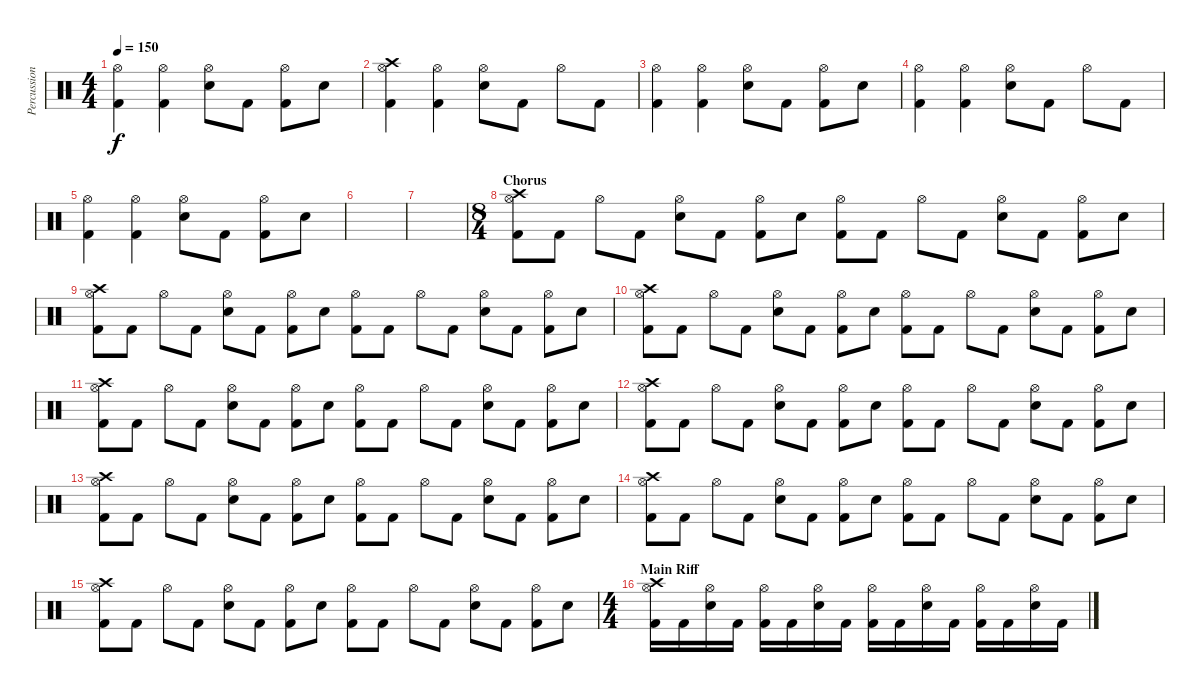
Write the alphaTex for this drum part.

\track ("Percussions" "Percussion") {instrument percussion}
\staff {score}
\articulation defaults
\ts (4 4)
\tempo 150
\clef neutral
\ks c
("Hi-Hat (open)" "Kick (hit) 2").4{dy f} ("Hi-Hat (open)" "Kick (hit) 2").4 ("Hi-Hat (open)" "Electric Snare (hit)").8 "Kick (hit) 2".8 ("Hi-Hat (open)" "Kick (hit) 2").8 "Electric Snare (hit)".8 |
("Crash high (hit)" "Hi-Hat (open)" "Kick (hit) 2").4 ("Hi-Hat (open)" "Kick (hit) 2").4 ("Hi-Hat (open)" "Electric Snare (hit)").8 "Kick (hit) 2".8 "Hi-Hat (open)".8 "Kick (hit) 2".8 |
("Hi-Hat (open)" "Kick (hit) 2").4 ("Hi-Hat (open)" "Kick (hit) 2").4 ("Hi-Hat (open)" "Electric Snare (hit)").8 "Kick (hit) 2".8 ("Hi-Hat (open)" "Kick (hit) 2").8 "Electric Snare (hit)".8 |
("Hi-Hat (open)" "Kick (hit) 2").4 ("Hi-Hat (open)" "Kick (hit) 2").4 ("Hi-Hat (open)" "Electric Snare (hit)").8 "Kick (hit) 2".8 "Hi-Hat (open)".8 "Kick (hit) 2".8 |
("Hi-Hat (open)" "Kick (hit) 2").4 ("Hi-Hat (open)" "Kick (hit) 2").4 ("Hi-Hat (open)" "Electric Snare (hit)").8 "Kick (hit) 2".8 ("Hi-Hat (open)" "Kick (hit) 2").8 "Electric Snare (hit)".8 |
|
|
\ts (8 4)
\section ("" "Chorus")
("Crash high (hit)" "Hi-Hat (open)" "Kick (hit) 2").8 "Kick (hit) 2".8 "Hi-Hat (open)".8 "Kick (hit) 2".8 ("Hi-Hat (open)" "Electric Snare (hit)").8 "Kick (hit) 2".8 ("Hi-Hat (open)" "Kick (hit) 2").8 "Electric Snare (hit)".8 ("Hi-Hat (open)" "Kick (hit) 2").8 "Kick (hit) 2".8 "Hi-Hat (open)".8 "Kick (hit) 2".8 ("Hi-Hat (open)" "Electric Snare (hit)").8 "Kick (hit) 2".8 ("Hi-Hat (open)" "Kick (hit) 2").8 "Electric Snare (hit)".8 |
("Crash high (hit)" "Hi-Hat (open)" "Kick (hit) 2").8 "Kick (hit) 2".8 "Hi-Hat (open)".8 "Kick (hit) 2".8 ("Hi-Hat (open)" "Electric Snare (hit)").8 "Kick (hit) 2".8 ("Hi-Hat (open)" "Kick (hit) 2").8 "Electric Snare (hit)".8 ("Hi-Hat (open)" "Kick (hit) 2").8 "Kick (hit) 2".8 "Hi-Hat (open)".8 "Kick (hit) 2".8 ("Hi-Hat (open)" "Electric Snare (hit)").8 "Kick (hit) 2".8 ("Hi-Hat (open)" "Kick (hit) 2").8 "Electric Snare (hit)".8 |
("Crash high (hit)" "Hi-Hat (open)" "Kick (hit) 2").8 "Kick (hit) 2".8 "Hi-Hat (open)".8 "Kick (hit) 2".8 ("Hi-Hat (open)" "Electric Snare (hit)").8 "Kick (hit) 2".8 ("Hi-Hat (open)" "Kick (hit) 2").8 "Electric Snare (hit)".8 ("Hi-Hat (open)" "Kick (hit) 2").8 "Kick (hit) 2".8 "Hi-Hat (open)".8 "Kick (hit) 2".8 ("Hi-Hat (open)" "Electric Snare (hit)").8 "Kick (hit) 2".8 ("Hi-Hat (open)" "Kick (hit) 2").8 "Electric Snare (hit)".8 |
("Crash high (hit)" "Hi-Hat (open)" "Kick (hit) 2").8 "Kick (hit) 2".8 "Hi-Hat (open)".8 "Kick (hit) 2".8 ("Hi-Hat (open)" "Electric Snare (hit)").8 "Kick (hit) 2".8 ("Hi-Hat (open)" "Kick (hit) 2").8 "Electric Snare (hit)".8 ("Hi-Hat (open)" "Kick (hit) 2").8 "Kick (hit) 2".8 "Hi-Hat (open)".8 "Kick (hit) 2".8 ("Hi-Hat (open)" "Electric Snare (hit)").8 "Kick (hit) 2".8 ("Hi-Hat (open)" "Kick (hit) 2").8 "Electric Snare (hit)".8 |
("Crash high (hit)" "Hi-Hat (open)" "Kick (hit) 2").8 "Kick (hit) 2".8 "Hi-Hat (open)".8 "Kick (hit) 2".8 ("Hi-Hat (open)" "Electric Snare (hit)").8 "Kick (hit) 2".8 ("Hi-Hat (open)" "Kick (hit) 2").8 "Electric Snare (hit)".8 ("Hi-Hat (open)" "Kick (hit) 2").8 "Kick (hit) 2".8 "Hi-Hat (open)".8 "Kick (hit) 2".8 ("Hi-Hat (open)" "Electric Snare (hit)").8 "Kick (hit) 2".8 ("Hi-Hat (open)" "Kick (hit) 2").8 "Electric Snare (hit)".8 |
("Crash high (hit)" "Hi-Hat (open)" "Kick (hit) 2").8 "Kick (hit) 2".8 "Hi-Hat (open)".8 "Kick (hit) 2".8 ("Hi-Hat (open)" "Electric Snare (hit)").8 "Kick (hit) 2".8 ("Hi-Hat (open)" "Kick (hit) 2").8 "Electric Snare (hit)".8 ("Hi-Hat (open)" "Kick (hit) 2").8 "Kick (hit) 2".8 "Hi-Hat (open)".8 "Kick (hit) 2".8 ("Hi-Hat (open)" "Electric Snare (hit)").8 "Kick (hit) 2".8 ("Hi-Hat (open)" "Kick (hit) 2").8 "Electric Snare (hit)".8 |
("Crash high (hit)" "Hi-Hat (open)" "Kick (hit) 2").8 "Kick (hit) 2".8 "Hi-Hat (open)".8 "Kick (hit) 2".8 ("Hi-Hat (open)" "Electric Snare (hit)").8 "Kick (hit) 2".8 ("Hi-Hat (open)" "Kick (hit) 2").8 "Electric Snare (hit)".8 ("Hi-Hat (open)" "Kick (hit) 2").8 "Kick (hit) 2".8 "Hi-Hat (open)".8 "Kick (hit) 2".8 ("Hi-Hat (open)" "Electric Snare (hit)").8 "Kick (hit) 2".8 ("Hi-Hat (open)" "Kick (hit) 2").8 "Electric Snare (hit)".8 |
("Crash high (hit)" "Hi-Hat (open)" "Kick (hit) 2").8 "Kick (hit) 2".8 "Hi-Hat (open)".8 "Kick (hit) 2".8 ("Hi-Hat (open)" "Electric Snare (hit)").8 "Kick (hit) 2".8 ("Hi-Hat (open)" "Kick (hit) 2").8 "Electric Snare (hit)".8 ("Hi-Hat (open)" "Kick (hit) 2").8 "Kick (hit) 2".8 "Hi-Hat (open)".8 "Kick (hit) 2".8 ("Hi-Hat (open)" "Electric Snare (hit)").8 "Kick (hit) 2".8 ("Hi-Hat (open)" "Kick (hit) 2").8 "Electric Snare (hit)".8 |
\ts (4 4)
\section ("" "Main Riff")
("Crash high (hit)" "Hi-Hat (open)" "Kick (hit) 2").16 "Kick (hit) 2".16 ("Hi-Hat (open)" "Electric Snare (hit)").16 "Kick (hit) 2".16 ("Hi-Hat (open)" "Kick (hit) 2").16 "Kick (hit) 2".16 ("Hi-Hat (open)" "Electric Snare (hit)").16 "Kick (hit) 2".16 ("Hi-Hat (open)" "Kick (hit) 2").16 "Kick (hit) 2".16 ("Hi-Hat (open)" "Electric Snare (hit)").16 "Kick (hit) 2".16 ("Hi-Hat (open)" "Kick (hit) 2").16 "Kick (hit) 2".16 ("Hi-Hat (open)" "Electric Snare (hit)").16 "Kick (hit) 2".16
